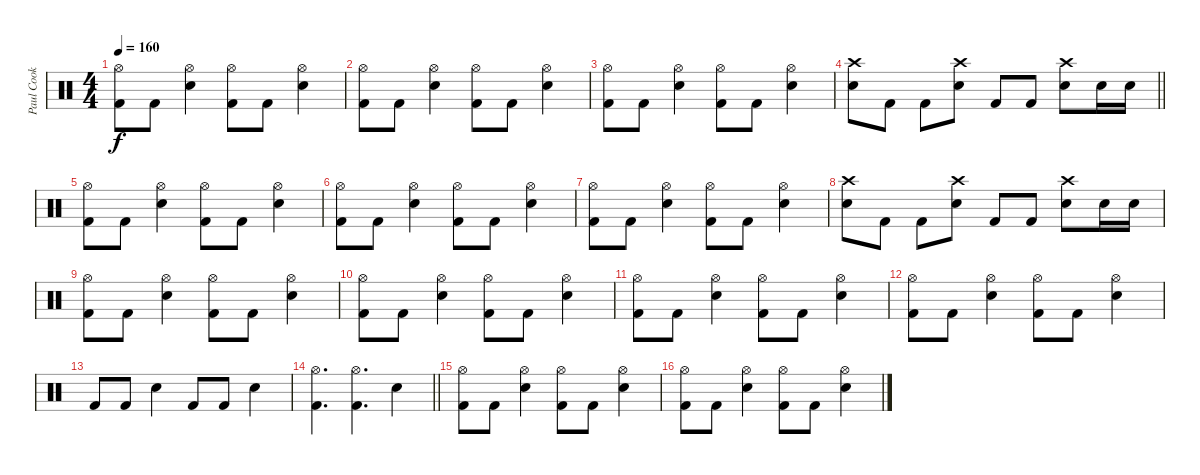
\track ("Paul Cook" "Paul Cook") {instrument percussion}
\staff {score}
\articulation defaults
\ts (4 4)
\tempo 160
\clef neutral
\ks c
("Hi-Hat (open)" "Kick (hit) 2").8{dy f} "Kick (hit) 2".8 ("Hi-Hat (open)" "Electric Snare (hit)").4 ("Hi-Hat (open)" "Kick (hit) 2").8 "Kick (hit) 2".8 ("Hi-Hat (open)" "Electric Snare (hit)").4 |
("Hi-Hat (open)" "Kick (hit) 2").8 "Kick (hit) 2".8 ("Hi-Hat (open)" "Electric Snare (hit)").4 ("Hi-Hat (open)" "Kick (hit) 2").8 "Kick (hit) 2".8 ("Hi-Hat (open)" "Electric Snare (hit)").4 |
("Hi-Hat (open)" "Kick (hit) 2").8 "Kick (hit) 2".8 ("Hi-Hat (open)" "Electric Snare (hit)").4 ("Hi-Hat (open)" "Kick (hit) 2").8 "Kick (hit) 2".8 ("Hi-Hat (open)" "Electric Snare (hit)").4 |
\barLineRight lightlight
("Crash high (hit)" "Electric Snare (hit)").8 "Kick (hit) 2".8 "Kick (hit) 2".8 ("Crash high (hit)" "Electric Snare (hit)").8 "Kick (hit) 2".8 "Kick (hit) 2".8 ("Crash high (hit)" "Electric Snare (hit)").8 "Electric Snare (hit)".16 "Electric Snare (hit)".16 |
("Hi-Hat (open)" "Kick (hit) 2").8 "Kick (hit) 2".8 ("Hi-Hat (open)" "Electric Snare (hit)").4 ("Hi-Hat (open)" "Kick (hit) 2").8 "Kick (hit) 2".8 ("Hi-Hat (open)" "Electric Snare (hit)").4 |
("Hi-Hat (open)" "Kick (hit) 2").8 "Kick (hit) 2".8 ("Hi-Hat (open)" "Electric Snare (hit)").4 ("Hi-Hat (open)" "Kick (hit) 2").8 "Kick (hit) 2".8 ("Hi-Hat (open)" "Electric Snare (hit)").4 |
("Hi-Hat (open)" "Kick (hit) 2").8 "Kick (hit) 2".8 ("Hi-Hat (open)" "Electric Snare (hit)").4 ("Hi-Hat (open)" "Kick (hit) 2").8 "Kick (hit) 2".8 ("Hi-Hat (open)" "Electric Snare (hit)").4 |
("Crash high (hit)" "Electric Snare (hit)").8 "Kick (hit) 2".8 "Kick (hit) 2".8 ("Crash high (hit)" "Electric Snare (hit)").8 "Kick (hit) 2".8 "Kick (hit) 2".8 ("Crash high (hit)" "Electric Snare (hit)").8 "Electric Snare (hit)".16 "Electric Snare (hit)".16 |
("Hi-Hat (open)" "Kick (hit) 2").8 "Kick (hit) 2".8 ("Hi-Hat (open)" "Electric Snare (hit)").4 ("Hi-Hat (open)" "Kick (hit) 2").8 "Kick (hit) 2".8 ("Hi-Hat (open)" "Electric Snare (hit)").4 |
("Hi-Hat (open)" "Kick (hit) 2").8 "Kick (hit) 2".8 ("Hi-Hat (open)" "Electric Snare (hit)").4 ("Hi-Hat (open)" "Kick (hit) 2").8 "Kick (hit) 2".8 ("Hi-Hat (open)" "Electric Snare (hit)").4 |
("Hi-Hat (open)" "Kick (hit) 2").8 "Kick (hit) 2".8 ("Hi-Hat (open)" "Electric Snare (hit)").4 ("Hi-Hat (open)" "Kick (hit) 2").8 "Kick (hit) 2".8 ("Hi-Hat (open)" "Electric Snare (hit)").4 |
("Hi-Hat (open)" "Kick (hit) 2").8 "Kick (hit) 2".8 ("Hi-Hat (open)" "Electric Snare (hit)").4 ("Hi-Hat (open)" "Kick (hit) 2").8 "Kick (hit) 2".8 ("Hi-Hat (open)" "Electric Snare (hit)").4 |
"Kick (hit) 2".8 "Kick (hit) 2".8 "Electric Snare (hit)".4 "Kick (hit) 2".8 "Kick (hit) 2".8 "Electric Snare (hit)".4 |
\barLineRight lightlight
("Hi-Hat (open)" "Kick (hit) 2").4{d} ("Hi-Hat (open)" "Kick (hit) 2").4{d} "Electric Snare (hit)".4 |
("Hi-Hat (open)" "Kick (hit) 2").8 "Kick (hit) 2".8 ("Hi-Hat (open)" "Electric Snare (hit)").4 ("Hi-Hat (open)" "Kick (hit) 2").8 "Kick (hit) 2".8 ("Hi-Hat (open)" "Electric Snare (hit)").4 |
("Hi-Hat (open)" "Kick (hit) 2").8 "Kick (hit) 2".8 ("Hi-Hat (open)" "Electric Snare (hit)").4 ("Hi-Hat (open)" "Kick (hit) 2").8 "Kick (hit) 2".8 ("Hi-Hat (open)" "Electric Snare (hit)").4
